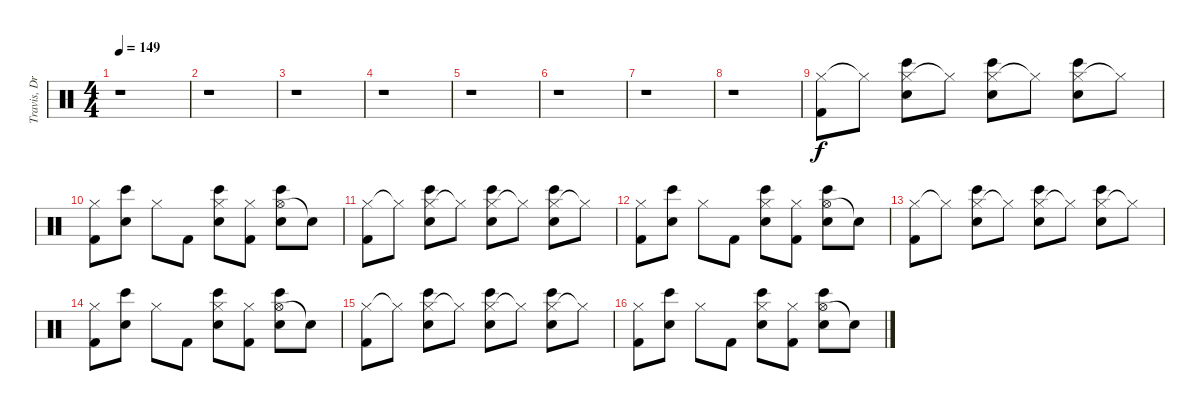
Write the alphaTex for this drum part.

\track ("Travis, Drums {Tabbed by Peter B.}" "Travis, Dr") {instrument percussion}
\staff {score}
\articulation defaults
\ts (4 4)
\tempo 149
\clef neutral
\ks c
r.1{dy f} |
r.1 |
r.1 |
r.1 |
r.1 |
r.1 |
r.1 |
r.1 |
("Hi-Hat (closed)" "Kick (hit) 2").8 "Hi-Hat (closed)"{t}.8 ("Hi-Hat (closed)" "Bongo High (hit)" "Snare (hit) 2").8 "Hi-Hat (closed)"{t}.8 ("Hi-Hat (closed)" "Bongo High (hit)" "Snare (hit) 2").8 "Hi-Hat (closed)"{t}.8 ("Hi-Hat (closed)" "Bongo High (hit)" "Snare (hit) 2").8 "Hi-Hat (closed)"{t}.8 |
("Hi-Hat (closed)" "Kick (hit) 2").8 ("Bongo High (hit)" "Snare (hit) 2").8 "Hi-Hat (closed)".8 "Kick (hit) 2".8 ("Hi-Hat (closed)" "Bongo High (hit)" "Snare (hit) 2").8 ("Hi-Hat (closed)" "Kick (hit) 2").8 ("Hi-Hat (open)" "Bongo High (hit)" "Snare (hit) 2").8 "Snare (hit)"{t}.8 |
("Hi-Hat (closed)" "Kick (hit) 2").8 "Hi-Hat (closed)"{t}.8 ("Hi-Hat (closed)" "Bongo High (hit)" "Snare (hit) 2").8 "Hi-Hat (closed)"{t}.8 ("Hi-Hat (closed)" "Bongo High (hit)" "Snare (hit) 2").8 "Hi-Hat (closed)"{t}.8 ("Hi-Hat (closed)" "Bongo High (hit)" "Snare (hit) 2").8 "Hi-Hat (closed)"{t}.8 |
("Hi-Hat (closed)" "Kick (hit) 2").8 ("Bongo High (hit)" "Snare (hit) 2").8 "Hi-Hat (closed)".8 "Kick (hit) 2".8 ("Hi-Hat (closed)" "Bongo High (hit)" "Snare (hit) 2").8 ("Hi-Hat (closed)" "Kick (hit) 2").8 ("Hi-Hat (open)" "Bongo High (hit)" "Snare (hit) 2").8 "Snare (hit)"{t}.8 |
("Hi-Hat (closed)" "Kick (hit) 2").8 "Hi-Hat (closed)"{t}.8 ("Hi-Hat (closed)" "Bongo High (hit)" "Snare (hit) 2").8 "Hi-Hat (closed)"{t}.8 ("Hi-Hat (closed)" "Bongo High (hit)" "Snare (hit) 2").8 "Hi-Hat (closed)"{t}.8 ("Hi-Hat (closed)" "Bongo High (hit)" "Snare (hit) 2").8 "Hi-Hat (closed)"{t}.8 |
("Hi-Hat (closed)" "Kick (hit) 2").8 ("Bongo High (hit)" "Snare (hit) 2").8 "Hi-Hat (closed)".8 "Kick (hit) 2".8 ("Hi-Hat (closed)" "Bongo High (hit)" "Snare (hit) 2").8 ("Hi-Hat (closed)" "Kick (hit) 2").8 ("Hi-Hat (open)" "Bongo High (hit)" "Snare (hit) 2").8 "Snare (hit)"{t}.8 |
("Hi-Hat (closed)" "Kick (hit) 2").8 "Hi-Hat (closed)"{t}.8 ("Hi-Hat (closed)" "Bongo High (hit)" "Snare (hit) 2").8 "Hi-Hat (closed)"{t}.8 ("Hi-Hat (closed)" "Bongo High (hit)" "Snare (hit) 2").8 "Hi-Hat (closed)"{t}.8 ("Hi-Hat (closed)" "Bongo High (hit)" "Snare (hit) 2").8 "Hi-Hat (closed)"{t}.8 |
("Hi-Hat (closed)" "Kick (hit) 2").8 ("Bongo High (hit)" "Snare (hit) 2").8 "Hi-Hat (closed)".8 "Kick (hit) 2".8 ("Hi-Hat (closed)" "Bongo High (hit)" "Snare (hit) 2").8 ("Hi-Hat (closed)" "Kick (hit) 2").8 ("Hi-Hat (open)" "Bongo High (hit)" "Snare (hit) 2").8 "Snare (hit)"{t}.8
